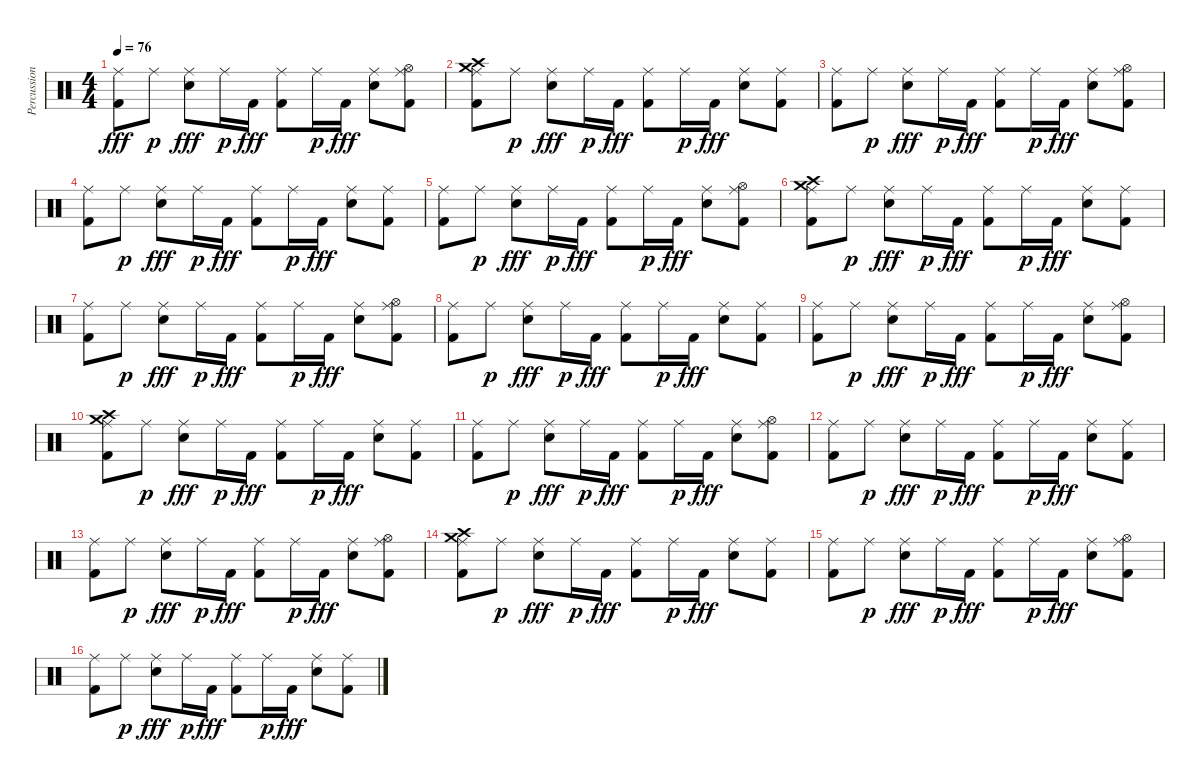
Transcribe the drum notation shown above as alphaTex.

\track ("Percussions" "Percussion") {instrument percussion}
\staff {score}
\articulation defaults
\ts (4 4)
\tempo 76
\clef neutral
\ks c
("Ride (middle)" "Kick (hit) 2").8{dy fff} "Ride (middle)".8{dy p} ("Ride (middle)" "Electric Snare (hit)").8{dy fff} "Ride (middle)".16{dy p} "Kick (hit) 2".16{dy fff} ("Ride (middle)" "Kick (hit) 2").8 "Ride (middle)".16{dy p} "Kick (hit) 2".16{dy fff} ("Ride (middle)" "Electric Snare (hit)").8 ("Ride (middle)" "Hi-Hat (open)" "Kick (hit) 2").8 |
("Ride (middle)" "Crash medium (hit)" "Crash high (hit)" "Kick (hit) 2").8 "Ride (middle)".8{dy p} ("Ride (middle)" "Electric Snare (hit)").8{dy fff} "Ride (middle)".16{dy p} "Kick (hit) 2".16{dy fff} ("Ride (middle)" "Kick (hit) 2").8 "Ride (middle)".16{dy p} "Kick (hit) 2".16{dy fff} ("Ride (middle)" "Electric Snare (hit)").8 ("Ride (middle)" "Kick (hit) 2").8 |
("Ride (middle)" "Kick (hit) 2").8 "Ride (middle)".8{dy p} ("Ride (middle)" "Electric Snare (hit)").8{dy fff} "Ride (middle)".16{dy p} "Kick (hit) 2".16{dy fff} ("Ride (middle)" "Kick (hit) 2").8 "Ride (middle)".16{dy p} "Kick (hit) 2".16{dy fff} ("Ride (middle)" "Electric Snare (hit)").8 ("Ride (middle)" "Hi-Hat (open)" "Kick (hit) 2").8 |
("Ride (middle)" "Kick (hit) 2").8 "Ride (middle)".8{dy p} ("Ride (middle)" "Electric Snare (hit)").8{dy fff} "Ride (middle)".16{dy p} "Kick (hit) 2".16{dy fff} ("Ride (middle)" "Kick (hit) 2").8 "Ride (middle)".16{dy p} "Kick (hit) 2".16{dy fff} ("Ride (middle)" "Electric Snare (hit)").8 ("Ride (middle)" "Kick (hit) 2").8 |
("Ride (middle)" "Kick (hit) 2").8 "Ride (middle)".8{dy p} ("Ride (middle)" "Electric Snare (hit)").8{dy fff} "Ride (middle)".16{dy p} "Kick (hit) 2".16{dy fff} ("Ride (middle)" "Kick (hit) 2").8 "Ride (middle)".16{dy p} "Kick (hit) 2".16{dy fff} ("Ride (middle)" "Electric Snare (hit)").8 ("Ride (middle)" "Hi-Hat (open)" "Kick (hit) 2").8 |
("Ride (middle)" "Crash medium (hit)" "Crash high (hit)" "Kick (hit) 2").8 "Ride (middle)".8{dy p} ("Ride (middle)" "Electric Snare (hit)").8{dy fff} "Ride (middle)".16{dy p} "Kick (hit) 2".16{dy fff} ("Ride (middle)" "Kick (hit) 2").8 "Ride (middle)".16{dy p} "Kick (hit) 2".16{dy fff} ("Ride (middle)" "Electric Snare (hit)").8 ("Ride (middle)" "Kick (hit) 2").8 |
("Ride (middle)" "Kick (hit) 2").8 "Ride (middle)".8{dy p} ("Ride (middle)" "Electric Snare (hit)").8{dy fff} "Ride (middle)".16{dy p} "Kick (hit) 2".16{dy fff} ("Ride (middle)" "Kick (hit) 2").8 "Ride (middle)".16{dy p} "Kick (hit) 2".16{dy fff} ("Ride (middle)" "Electric Snare (hit)").8 ("Ride (middle)" "Hi-Hat (open)" "Kick (hit) 2").8 |
("Ride (middle)" "Kick (hit) 2").8 "Ride (middle)".8{dy p} ("Ride (middle)" "Electric Snare (hit)").8{dy fff} "Ride (middle)".16{dy p} "Kick (hit) 2".16{dy fff} ("Ride (middle)" "Kick (hit) 2").8 "Ride (middle)".16{dy p} "Kick (hit) 2".16{dy fff} ("Ride (middle)" "Electric Snare (hit)").8 ("Ride (middle)" "Kick (hit) 2").8 |
("Ride (middle)" "Kick (hit) 2").8 "Ride (middle)".8{dy p} ("Ride (middle)" "Electric Snare (hit)").8{dy fff} "Ride (middle)".16{dy p} "Kick (hit) 2".16{dy fff} ("Ride (middle)" "Kick (hit) 2").8 "Ride (middle)".16{dy p} "Kick (hit) 2".16{dy fff} ("Ride (middle)" "Electric Snare (hit)").8 ("Ride (middle)" "Hi-Hat (open)" "Kick (hit) 2").8 |
("Ride (middle)" "Crash medium (hit)" "Crash high (hit)" "Kick (hit) 2").8 "Ride (middle)".8{dy p} ("Ride (middle)" "Electric Snare (hit)").8{dy fff} "Ride (middle)".16{dy p} "Kick (hit) 2".16{dy fff} ("Ride (middle)" "Kick (hit) 2").8 "Ride (middle)".16{dy p} "Kick (hit) 2".16{dy fff} ("Ride (middle)" "Electric Snare (hit)").8 ("Ride (middle)" "Kick (hit) 2").8 |
("Ride (middle)" "Kick (hit) 2").8 "Ride (middle)".8{dy p} ("Ride (middle)" "Electric Snare (hit)").8{dy fff} "Ride (middle)".16{dy p} "Kick (hit) 2".16{dy fff} ("Ride (middle)" "Kick (hit) 2").8 "Ride (middle)".16{dy p} "Kick (hit) 2".16{dy fff} ("Ride (middle)" "Electric Snare (hit)").8 ("Ride (middle)" "Hi-Hat (open)" "Kick (hit) 2").8 |
("Ride (middle)" "Kick (hit) 2").8 "Ride (middle)".8{dy p} ("Ride (middle)" "Electric Snare (hit)").8{dy fff} "Ride (middle)".16{dy p} "Kick (hit) 2".16{dy fff} ("Ride (middle)" "Kick (hit) 2").8 "Ride (middle)".16{dy p} "Kick (hit) 2".16{dy fff} ("Ride (middle)" "Electric Snare (hit)").8 ("Ride (middle)" "Kick (hit) 2").8 |
("Ride (middle)" "Kick (hit) 2").8 "Ride (middle)".8{dy p} ("Ride (middle)" "Electric Snare (hit)").8{dy fff} "Ride (middle)".16{dy p} "Kick (hit) 2".16{dy fff} ("Ride (middle)" "Kick (hit) 2").8 "Ride (middle)".16{dy p} "Kick (hit) 2".16{dy fff} ("Ride (middle)" "Electric Snare (hit)").8 ("Ride (middle)" "Hi-Hat (open)" "Kick (hit) 2").8 |
("Ride (middle)" "Crash medium (hit)" "Crash high (hit)" "Kick (hit) 2").8 "Ride (middle)".8{dy p} ("Ride (middle)" "Electric Snare (hit)").8{dy fff} "Ride (middle)".16{dy p} "Kick (hit) 2".16{dy fff} ("Ride (middle)" "Kick (hit) 2").8 "Ride (middle)".16{dy p} "Kick (hit) 2".16{dy fff} ("Ride (middle)" "Electric Snare (hit)").8 ("Ride (middle)" "Kick (hit) 2").8 |
("Ride (middle)" "Kick (hit) 2").8 "Ride (middle)".8{dy p} ("Ride (middle)" "Electric Snare (hit)").8{dy fff} "Ride (middle)".16{dy p} "Kick (hit) 2".16{dy fff} ("Ride (middle)" "Kick (hit) 2").8 "Ride (middle)".16{dy p} "Kick (hit) 2".16{dy fff} ("Ride (middle)" "Electric Snare (hit)").8 ("Ride (middle)" "Hi-Hat (open)" "Kick (hit) 2").8 |
("Ride (middle)" "Kick (hit) 2").8 "Ride (middle)".8{dy p} ("Ride (middle)" "Electric Snare (hit)").8{dy fff} "Ride (middle)".16{dy p} "Kick (hit) 2".16{dy fff} ("Ride (middle)" "Kick (hit) 2").8 "Ride (middle)".16{dy p} "Kick (hit) 2".16{dy fff} ("Ride (middle)" "Electric Snare (hit)").8 ("Ride (middle)" "Kick (hit) 2").8
